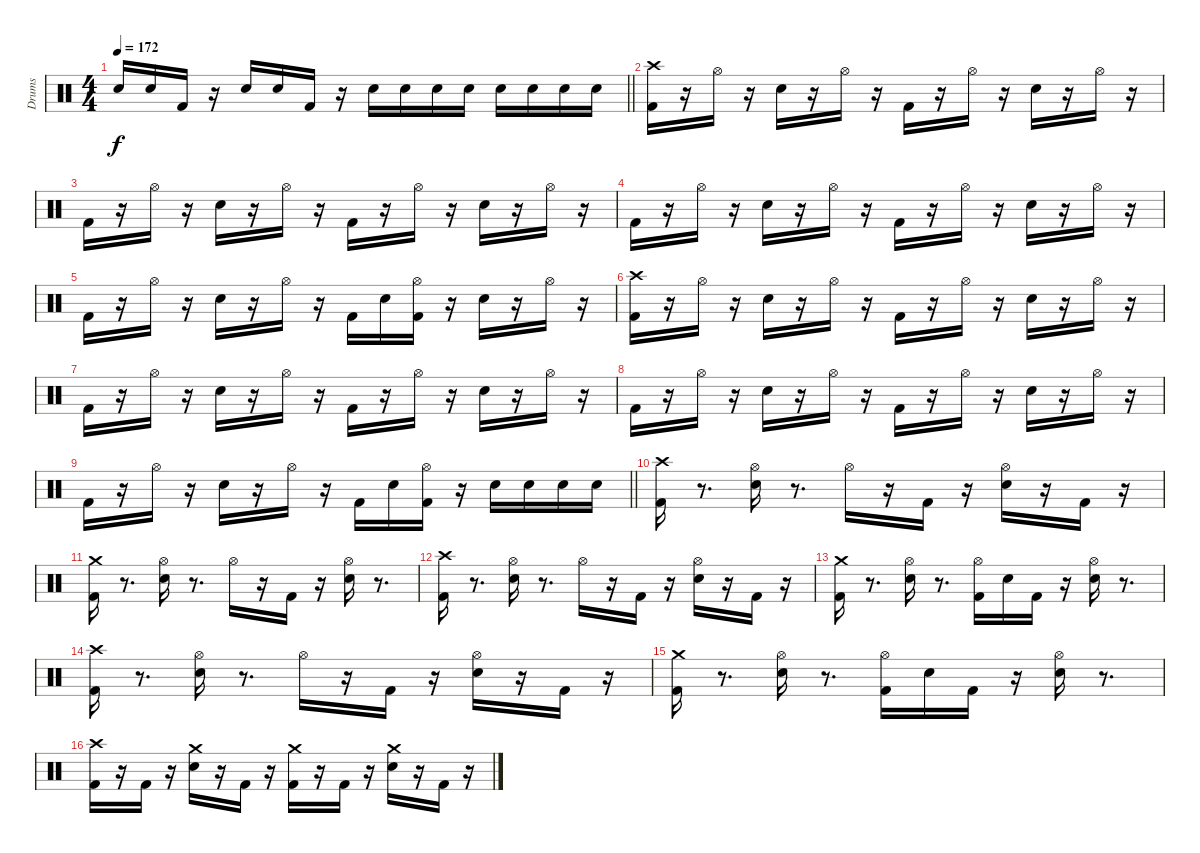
\track ("Drums" "Drums") {instrument percussion}
\staff {score}
\articulation defaults
\ts (4 4)
\tempo 172
\clef neutral
\barLineRight lightlight
\ks c "Snare (hit) 2".16{dy f} "Snare (hit) 2".16 "Kick (hit) 2".16
r.16 "Snare (hit) 2".16 "Snare (hit) 2".16 "Kick (hit) 2".16 r.16 "Snare (hit) 2".16 "Snare (hit) 2".16 "Snare (hit) 2".16 "Snare (hit) 2".16 "Snare (hit) 2".16 "Snare (hit) 2".16 "Snare (hit) 2".16 "Snare (hit) 2".16 |
\section ("" " ")
("Kick (hit) 2" "Crash high (hit)").16 r.16 "Hi-Hat (open)".16 r.16 "Snare (hit) 2".16 r.16 "Hi-Hat (open)".16 r.16 "Kick (hit) 2".16 r.16 "Hi-Hat (open)".16 r.16 "Snare (hit) 2".16 r.16 "Hi-Hat (open)".16 r.16 |
"Kick (hit) 2".16 r.16 "Hi-Hat (open)".16 r.16 "Snare (hit) 2".16 r.16 "Hi-Hat (open)".16 r.16 "Kick (hit) 2".16 r.16 "Hi-Hat (open)".16 r.16 "Snare (hit) 2".16 r.16 "Hi-Hat (open)".16 r.16 |
"Kick (hit) 2".16 r.16 "Hi-Hat (open)".16 r.16 "Snare (hit) 2".16 r.16 "Hi-Hat (open)".16 r.16 "Kick (hit) 2".16 r.16 "Hi-Hat (open)".16 r.16 "Snare (hit) 2".16 r.16 "Hi-Hat (open)".16 r.16 |
"Kick (hit) 2".16 r.16 "Hi-Hat (open)".16 r.16 "Snare (hit) 2".16 r.16 "Hi-Hat (open)".16 r.16 "Kick (hit) 2".16 "Snare (hit) 2".16 ("Kick (hit) 2" "Hi-Hat (open)").16 r.16 "Snare (hit) 2".16 r.16 "Hi-Hat (open)".16 r.16 |
("Kick (hit) 2" "Crash high (hit)").16 r.16 "Hi-Hat (open)".16 r.16 "Snare (hit) 2".16 r.16 "Hi-Hat (open)".16 r.16 "Kick (hit) 2".16 r.16 "Hi-Hat (open)".16 r.16 "Snare (hit) 2".16 r.16 "Hi-Hat (open)".16 r.16 |
"Kick (hit) 2".16 r.16 "Hi-Hat (open)".16 r.16 "Snare (hit) 2".16 r.16 "Hi-Hat (open)".16 r.16 "Kick (hit) 2".16 r.16 "Hi-Hat (open)".16 r.16 "Snare (hit) 2".16 r.16 "Hi-Hat (open)".16 r.16 |
"Kick (hit) 2".16 r.16 "Hi-Hat (open)".16 r.16 "Snare (hit) 2".16 r.16 "Hi-Hat (open)".16 r.16 "Kick (hit) 2".16 r.16 "Hi-Hat (open)".16 r.16 "Snare (hit) 2".16 r.16 "Hi-Hat (open)".16 r.16 |
\barLineRight lightlight "Kick (hit) 2".16
r.16 "Hi-Hat (open)".16 r.16 "Snare (hit) 2".16 r.16 "Hi-Hat (open)".16 r.16 "Kick (hit) 2".16 "Snare (hit) 2".16 ("Kick (hit) 2" "Hi-Hat (open)").16 r.16 "Snare (hit) 2".16 "Snare (hit) 2".16 "Snare (hit) 2".16 "Snare (hit) 2".16 |
("Kick (hit) 2" "Crash high (hit)").16 r.8{d} ("Snare (hit) 2" "Hi-Hat (open)").16 r.8{d} "Hi-Hat (open)".16 r.16 "Kick (hit) 2".16 r.16 ("Snare (hit) 2" "Hi-Hat (open)").16 r.16 "Kick (hit) 2".16 r.16 |
("Kick (hit) 2" "Crash medium (hit)").16 r.8{d} ("Snare (hit) 2" "Hi-Hat (open)").16 r.8{d} "Hi-Hat (open)".16 r.16 "Kick (hit) 2".16 r.16 ("Snare (hit) 2" "Hi-Hat (open)").16 r.8{d} |
("Kick (hit) 2" "Crash high (hit)").16 r.8{d} ("Snare (hit) 2" "Hi-Hat (open)").16 r.8{d} "Hi-Hat (open)".16 r.16 "Kick (hit) 2".16 r.16 ("Snare (hit) 2" "Hi-Hat (open)").16 r.16 "Kick (hit) 2".16 r.16 |
("Kick (hit) 2" "Crash medium (hit)").16 r.8{d} ("Snare (hit) 2" "Hi-Hat (open)").16 r.8{d} ("Kick (hit) 2" "Hi-Hat (open)").16 "Snare (hit) 2".16 "Kick (hit) 2".16 r.16 ("Snare (hit) 2" "Hi-Hat (open)").16 r.8{d} |
("Kick (hit) 2" "Crash high (hit)").16 r.8{d} ("Snare (hit) 2" "Hi-Hat (open)").16 r.8{d} "Hi-Hat (open)".16 r.16 "Kick (hit) 2".16 r.16 ("Snare (hit) 2" "Hi-Hat (open)").16 r.16 "Kick (hit) 2".16 r.16 |
("Kick (hit) 2" "Crash medium (hit)").16 r.8{d} ("Snare (hit) 2" "Hi-Hat (open)").16 r.8{d} ("Kick (hit) 2" "Hi-Hat (open)").16 "Snare (hit) 2".16 "Kick (hit) 2".16 r.16 ("Snare (hit) 2" "Hi-Hat (open)").16 r.8{d} |
("Kick (hit) 2" "Crash high (hit)").16 r.16 "Kick (hit) 2".16 r.16 ("Snare (hit) 2" "Crash medium (hit)").16 r.16 "Kick (hit) 2".16 r.16 ("Kick (hit) 2" "Crash medium (hit)").16 r.16 "Kick (hit) 2".16 r.16 ("Snare (hit) 2" "Crash medium (hit)").16 r.16 "Kick (hit) 2".16 r.16
